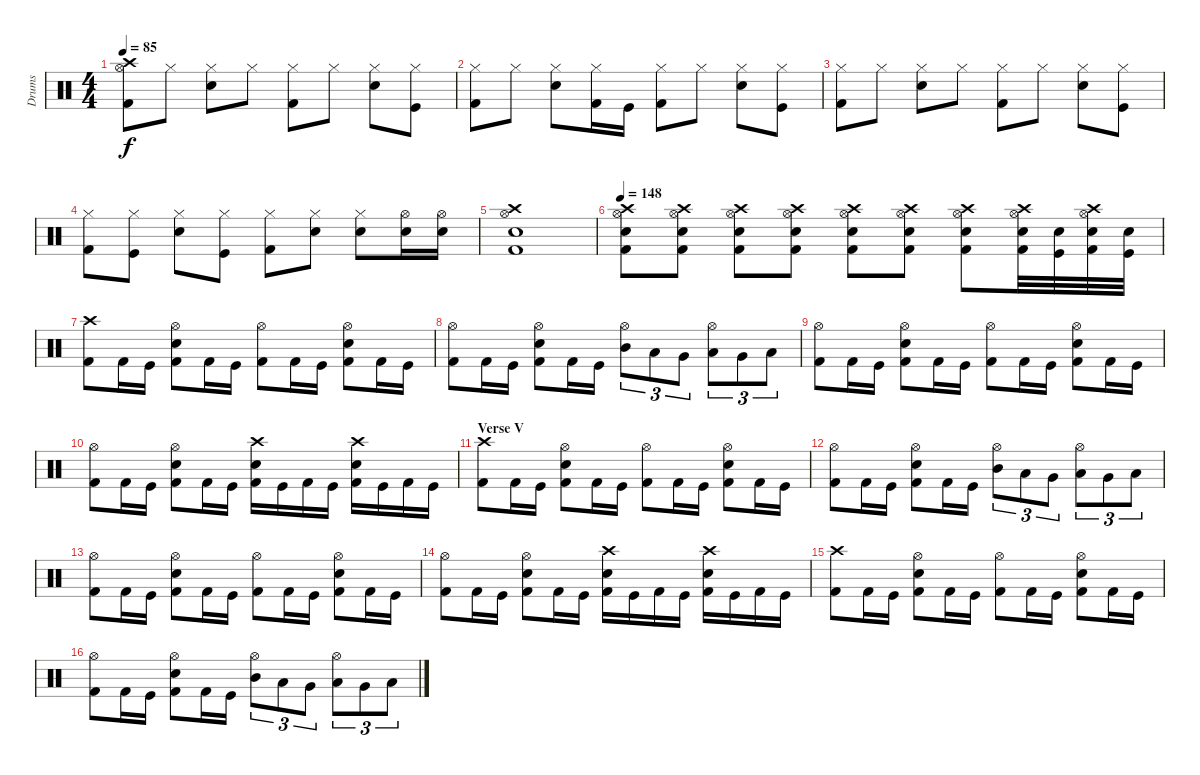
\track ("Drums" "Drums") {instrument percussion}
\staff {score}
\articulation defaults
\ts (4 4)
\tempo 85
\clef neutral
\ks c
("Hi-Hat (open)" "Crash high (hit)" "Kick (hit) 2").8{dy f} "Hi-Hat (closed)".8 ("Hi-Hat (closed)" "Snare (hit) 2").8 "Hi-Hat (closed)".8 ("Hi-Hat (closed)" "Kick (hit) 2").8 "Hi-Hat (closed)".8 ("Hi-Hat (closed)" "Snare (hit) 2").8 ("Hi-Hat (closed)" "Kick (hit)").8 |
("Hi-Hat (closed)" "Kick (hit) 2").8 "Hi-Hat (closed)".8 ("Hi-Hat (closed)" "Snare (hit) 2").8 ("Hi-Hat (closed)" "Kick (hit) 2").16 "Kick (hit)".16 ("Hi-Hat (closed)" "Kick (hit) 2").8 "Hi-Hat (closed)".8 ("Hi-Hat (closed)" "Snare (hit) 2").8 ("Hi-Hat (closed)" "Kick (hit)").8 |
("Hi-Hat (closed)" "Kick (hit) 2").8 "Hi-Hat (closed)".8 ("Hi-Hat (closed)" "Snare (hit) 2").8 "Hi-Hat (closed)".8 ("Hi-Hat (closed)" "Kick (hit) 2").8 "Hi-Hat (closed)".8 ("Hi-Hat (closed)" "Snare (hit) 2").8 ("Hi-Hat (closed)" "Kick (hit)").8 |
("Hi-Hat (closed)" "Kick (hit) 2").8 ("Hi-Hat (closed)" "Kick (hit)").8 ("Hi-Hat (closed)" "Snare (hit) 2").8 ("Hi-Hat (closed)" "Kick (hit)").8 ("Hi-Hat (closed)" "Kick (hit) 2").8 ("Hi-Hat (closed)" "Snare (hit) 2").8 ("Hi-Hat (closed)" "Snare (hit) 2").8 ("Hi-Hat (open)" "Snare (hit) 2").16 ("Hi-Hat (open)" "Snare (hit) 2").16 |
("Hi-Hat (open)" "Crash high (hit)" "Snare (hit) 2" "Kick (hit) 2").1 |
\tempo 148
("Hi-Hat (open)" "Crash high (hit)" "Snare (hit) 2" "Kick (hit) 2").8 ("Hi-Hat (open)" "Crash high (hit)" "Snare (hit) 2" "Kick (hit) 2").8 ("Hi-Hat (open)" "Crash high (hit)" "Snare (hit) 2" "Kick (hit) 2").8 ("Hi-Hat (open)" "Crash high (hit)" "Snare (hit) 2" "Kick (hit) 2").8 ("Hi-Hat (open)" "Crash high (hit)" "Snare (hit) 2" "Kick (hit) 2").8 ("Hi-Hat (open)" "Crash high (hit)" "Snare (hit) 2" "Kick (hit) 2").8 ("Hi-Hat (open)" "Crash high (hit)" "Snare (hit) 2" "Kick (hit) 2").8 ("Hi-Hat (open)" "Crash high (hit)" "Snare (hit) 2" "Kick (hit) 2").32 ("Snare (hit) 2" "Kick (hit)").32 ("Hi-Hat (open)" "Crash high (hit)" "Snare (hit) 2" "Kick (hit) 2").32 ("Snare (hit) 2" "Kick (hit)").32 |
("Crash high (hit)" "Kick (hit) 2").8 "Kick (hit) 2".16 "Kick (hit)".16 ("Hi-Hat (open)" "Snare (hit) 2" "Kick (hit) 2").8 "Kick (hit) 2".16 "Kick (hit)".16 ("Hi-Hat (open)" "Kick (hit) 2").8 "Kick (hit) 2".16 "Kick (hit)".16 ("Hi-Hat (open)" "Snare (hit) 2" "Kick (hit) 2").8 "Kick (hit) 2".16 "Kick (hit)".16 |
("Hi-Hat (open)" "Kick (hit) 2").8 "Kick (hit) 2".16 "Kick (hit)".16 ("Hi-Hat (open)" "Snare (hit) 2" "Kick (hit) 2").8 "Kick (hit) 2".16 "Kick (hit)".16 ("Hi-Hat (open)" "Mid Tom (hit)").8{tu (3 2)} "Low Tom (hit)".8{tu (3 2)} "Very Low Tom (hit)".8{tu (3 2)} ("Hi-Hat (open)" "Low Tom (hit)").8{tu (3 2)} "Very Low Tom (hit)".8{tu (3 2)} "Low Floor Tom (hit)".8{tu (3 2)} |
("Hi-Hat (open)" "Kick (hit) 2").8 "Kick (hit) 2".16 "Kick (hit)".16 ("Hi-Hat (open)" "Snare (hit) 2" "Kick (hit) 2").8 "Kick (hit) 2".16 "Kick (hit)".16 ("Hi-Hat (open)" "Kick (hit) 2").8 "Kick (hit) 2".16 "Kick (hit)".16 ("Hi-Hat (open)" "Snare (hit) 2" "Kick (hit) 2").8 "Kick (hit) 2".16 "Kick (hit)".16 |
("Hi-Hat (open)" "Kick (hit) 2").8 "Kick (hit) 2".16 "Kick (hit)".16 ("Hi-Hat (open)" "Snare (hit) 2" "Kick (hit) 2").8 "Kick (hit) 2".16 "Kick (hit)".16 ("Crash high (hit)" "Snare (hit) 2" "Kick (hit) 2").16 "Kick (hit)".16 "Kick (hit) 2".16 "Kick (hit)".16 ("Crash high (hit)" "Snare (hit) 2" "Kick (hit) 2").16 "Kick (hit)".16 "Kick (hit) 2".16 "Kick (hit)".16 |
\section ("" "Verse V")
("Crash high (hit)" "Kick (hit) 2").8 "Kick (hit) 2".16 "Kick (hit)".16 ("Hi-Hat (open)" "Snare (hit) 2" "Kick (hit) 2").8 "Kick (hit) 2".16 "Kick (hit)".16 ("Hi-Hat (open)" "Kick (hit) 2").8 "Kick (hit) 2".16 "Kick (hit)".16 ("Hi-Hat (open)" "Snare (hit) 2" "Kick (hit) 2").8 "Kick (hit) 2".16 "Kick (hit)".16 |
("Hi-Hat (open)" "Kick (hit) 2").8 "Kick (hit) 2".16 "Kick (hit)".16 ("Hi-Hat (open)" "Snare (hit) 2" "Kick (hit) 2").8 "Kick (hit) 2".16 "Kick (hit)".16 ("Hi-Hat (open)" "Mid Tom (hit)").8{tu (3 2)} "Low Tom (hit)".8{tu (3 2)} "Very Low Tom (hit)".8{tu (3 2)} ("Hi-Hat (open)" "Low Tom (hit)").8{tu (3 2)} "Very Low Tom (hit)".8{tu (3 2)} "Low Floor Tom (hit)".8{tu (3 2)} |
("Hi-Hat (open)" "Kick (hit) 2").8 "Kick (hit) 2".16 "Kick (hit)".16 ("Hi-Hat (open)" "Snare (hit) 2" "Kick (hit) 2").8 "Kick (hit) 2".16 "Kick (hit)".16 ("Hi-Hat (open)" "Kick (hit) 2").8 "Kick (hit) 2".16 "Kick (hit)".16 ("Hi-Hat (open)" "Snare (hit) 2" "Kick (hit) 2").8 "Kick (hit) 2".16 "Kick (hit)".16 |
("Hi-Hat (open)" "Kick (hit) 2").8 "Kick (hit) 2".16 "Kick (hit)".16 ("Hi-Hat (open)" "Snare (hit) 2" "Kick (hit) 2").8 "Kick (hit) 2".16 "Kick (hit)".16 ("Crash high (hit)" "Snare (hit) 2" "Kick (hit) 2").16 "Kick (hit)".16 "Kick (hit) 2".16 "Kick (hit)".16 ("Crash high (hit)" "Snare (hit) 2" "Kick (hit) 2").16 "Kick (hit)".16 "Kick (hit) 2".16 "Kick (hit)".16 |
("Crash high (hit)" "Kick (hit) 2").8 "Kick (hit) 2".16 "Kick (hit)".16 ("Hi-Hat (open)" "Snare (hit) 2" "Kick (hit) 2").8 "Kick (hit) 2".16 "Kick (hit)".16 ("Hi-Hat (open)" "Kick (hit) 2").8 "Kick (hit) 2".16 "Kick (hit)".16 ("Hi-Hat (open)" "Snare (hit) 2" "Kick (hit) 2").8 "Kick (hit) 2".16 "Kick (hit)".16 |
("Hi-Hat (open)" "Kick (hit) 2").8 "Kick (hit) 2".16 "Kick (hit)".16 ("Hi-Hat (open)" "Snare (hit) 2" "Kick (hit) 2").8 "Kick (hit) 2".16 "Kick (hit)".16 ("Hi-Hat (open)" "Mid Tom (hit)").8{tu (3 2)} "Low Tom (hit)".8{tu (3 2)} "Very Low Tom (hit)".8{tu (3 2)} ("Hi-Hat (open)" "Low Tom (hit)").8{tu (3 2)} "Very Low Tom (hit)".8{tu (3 2)} "Low Floor Tom (hit)".8{tu (3 2)}
